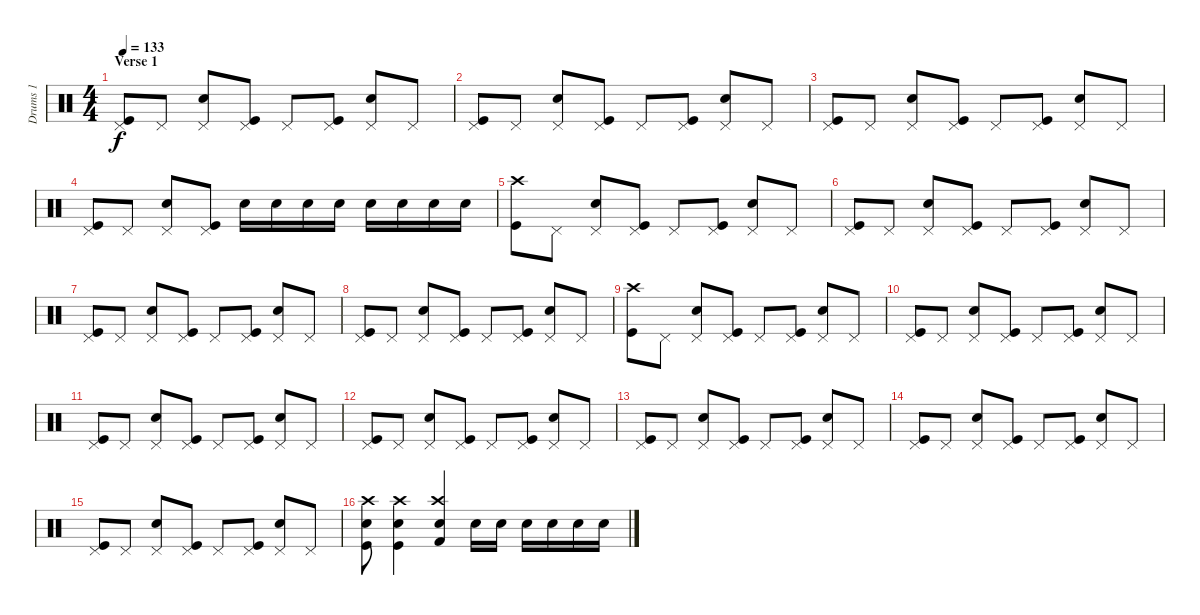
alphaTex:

\track ("Drums 1" "Drums 1") {instrument percussion}
\staff {score}
\articulation defaults
\ts (4 4)
\section ("" "Verse 1")
\tempo 133
\clef neutral
\ks c
("Pedal Hi-Hat (hit)" "Kick (hit)").8{dy f} "Pedal Hi-Hat (hit)".8 ("Pedal Hi-Hat (hit)" "Electric Snare (hit)").8 ("Pedal Hi-Hat (hit)" "Kick (hit)").8 "Pedal Hi-Hat (hit)".8 ("Pedal Hi-Hat (hit)" "Kick (hit)").8 ("Pedal Hi-Hat (hit)" "Electric Snare (hit)").8 "Pedal Hi-Hat (hit)".8 |
("Pedal Hi-Hat (hit)" "Kick (hit)").8 "Pedal Hi-Hat (hit)".8 ("Pedal Hi-Hat (hit)" "Electric Snare (hit)").8 ("Pedal Hi-Hat (hit)" "Kick (hit)").8 "Pedal Hi-Hat (hit)".8 ("Pedal Hi-Hat (hit)" "Kick (hit)").8 ("Pedal Hi-Hat (hit)" "Electric Snare (hit)").8 "Pedal Hi-Hat (hit)".8 |
("Pedal Hi-Hat (hit)" "Kick (hit)").8 "Pedal Hi-Hat (hit)".8 ("Pedal Hi-Hat (hit)" "Electric Snare (hit)").8 ("Pedal Hi-Hat (hit)" "Kick (hit)").8 "Pedal Hi-Hat (hit)".8 ("Pedal Hi-Hat (hit)" "Kick (hit)").8 ("Pedal Hi-Hat (hit)" "Electric Snare (hit)").8 "Pedal Hi-Hat (hit)".8 |
("Pedal Hi-Hat (hit)" "Kick (hit)").8 "Pedal Hi-Hat (hit)".8 ("Pedal Hi-Hat (hit)" "Electric Snare (hit)").8 ("Pedal Hi-Hat (hit)" "Kick (hit)").8 "Electric Snare (hit)".16 "Electric Snare (hit)".16 "Electric Snare (hit)".16 "Electric Snare (hit)".16 "Electric Snare (hit)".16 "Electric Snare (hit)".16 "Electric Snare (hit)".16 "Electric Snare (hit)".16 |
("Crash high (hit)" "Kick (hit)").8 "Pedal Hi-Hat (hit)".8 ("Pedal Hi-Hat (hit)" "Electric Snare (hit)").8 ("Pedal Hi-Hat (hit)" "Kick (hit)").8 "Pedal Hi-Hat (hit)".8 ("Pedal Hi-Hat (hit)" "Kick (hit)").8 ("Pedal Hi-Hat (hit)" "Electric Snare (hit)").8 "Pedal Hi-Hat (hit)".8 |
("Pedal Hi-Hat (hit)" "Kick (hit)").8 "Pedal Hi-Hat (hit)".8 ("Pedal Hi-Hat (hit)" "Electric Snare (hit)").8 ("Pedal Hi-Hat (hit)" "Kick (hit)").8 "Pedal Hi-Hat (hit)".8 ("Pedal Hi-Hat (hit)" "Kick (hit)").8 ("Pedal Hi-Hat (hit)" "Electric Snare (hit)").8 "Pedal Hi-Hat (hit)".8 |
("Pedal Hi-Hat (hit)" "Kick (hit)").8 "Pedal Hi-Hat (hit)".8 ("Pedal Hi-Hat (hit)" "Electric Snare (hit)").8 ("Pedal Hi-Hat (hit)" "Kick (hit)").8 "Pedal Hi-Hat (hit)".8 ("Pedal Hi-Hat (hit)" "Kick (hit)").8 ("Pedal Hi-Hat (hit)" "Electric Snare (hit)").8 "Pedal Hi-Hat (hit)".8 |
("Pedal Hi-Hat (hit)" "Kick (hit)").8 "Pedal Hi-Hat (hit)".8 ("Pedal Hi-Hat (hit)" "Electric Snare (hit)").8 ("Pedal Hi-Hat (hit)" "Kick (hit)").8 "Pedal Hi-Hat (hit)".8 ("Pedal Hi-Hat (hit)" "Kick (hit)").8 ("Pedal Hi-Hat (hit)" "Electric Snare (hit)").8 "Pedal Hi-Hat (hit)".8 |
("Crash high (hit)" "Kick (hit)").8 "Pedal Hi-Hat (hit)".8 ("Pedal Hi-Hat (hit)" "Electric Snare (hit)").8 ("Pedal Hi-Hat (hit)" "Kick (hit)").8 "Pedal Hi-Hat (hit)".8 ("Pedal Hi-Hat (hit)" "Kick (hit)").8 ("Pedal Hi-Hat (hit)" "Electric Snare (hit)").8 "Pedal Hi-Hat (hit)".8 |
("Pedal Hi-Hat (hit)" "Kick (hit)").8 "Pedal Hi-Hat (hit)".8 ("Pedal Hi-Hat (hit)" "Electric Snare (hit)").8 ("Pedal Hi-Hat (hit)" "Kick (hit)").8 "Pedal Hi-Hat (hit)".8 ("Pedal Hi-Hat (hit)" "Kick (hit)").8 ("Pedal Hi-Hat (hit)" "Electric Snare (hit)").8 "Pedal Hi-Hat (hit)".8 |
("Pedal Hi-Hat (hit)" "Kick (hit)").8 "Pedal Hi-Hat (hit)".8 ("Pedal Hi-Hat (hit)" "Electric Snare (hit)").8 ("Pedal Hi-Hat (hit)" "Kick (hit)").8 "Pedal Hi-Hat (hit)".8 ("Pedal Hi-Hat (hit)" "Kick (hit)").8 ("Pedal Hi-Hat (hit)" "Electric Snare (hit)").8 "Pedal Hi-Hat (hit)".8 |
("Pedal Hi-Hat (hit)" "Kick (hit)").8 "Pedal Hi-Hat (hit)".8 ("Pedal Hi-Hat (hit)" "Electric Snare (hit)").8 ("Pedal Hi-Hat (hit)" "Kick (hit)").8 "Pedal Hi-Hat (hit)".8 ("Pedal Hi-Hat (hit)" "Kick (hit)").8 ("Pedal Hi-Hat (hit)" "Electric Snare (hit)").8 "Pedal Hi-Hat (hit)".8 |
("Pedal Hi-Hat (hit)" "Kick (hit)").8 "Pedal Hi-Hat (hit)".8 ("Pedal Hi-Hat (hit)" "Electric Snare (hit)").8 ("Pedal Hi-Hat (hit)" "Kick (hit)").8 "Pedal Hi-Hat (hit)".8 ("Pedal Hi-Hat (hit)" "Kick (hit)").8 ("Pedal Hi-Hat (hit)" "Electric Snare (hit)").8 "Pedal Hi-Hat (hit)".8 |
("Pedal Hi-Hat (hit)" "Kick (hit)").8 "Pedal Hi-Hat (hit)".8 ("Pedal Hi-Hat (hit)" "Electric Snare (hit)").8 ("Pedal Hi-Hat (hit)" "Kick (hit)").8 "Pedal Hi-Hat (hit)".8 ("Pedal Hi-Hat (hit)" "Kick (hit)").8 ("Pedal Hi-Hat (hit)" "Electric Snare (hit)").8 "Pedal Hi-Hat (hit)".8 |
("Pedal Hi-Hat (hit)" "Kick (hit)").8 "Pedal Hi-Hat (hit)".8 ("Pedal Hi-Hat (hit)" "Electric Snare (hit)").8 ("Pedal Hi-Hat (hit)" "Kick (hit)").8 "Pedal Hi-Hat (hit)".8 ("Pedal Hi-Hat (hit)" "Kick (hit)").8 ("Pedal Hi-Hat (hit)" "Electric Snare (hit)").8 "Pedal Hi-Hat (hit)".8 |
("Crash high (hit)" "Electric Snare (hit)" "Kick (hit)").8 ("Crash high (hit)" "Electric Snare (hit)" "Kick (hit)").4 ("Electric Snare (hit)" "Kick (hit) 2" "Crash high (hit)").4 "Electric Snare (hit)".16 "Electric Snare (hit)".16 "Electric Snare (hit)".16 "Electric Snare (hit)".16 "Electric Snare (hit)".16 "Electric Snare (hit)".16
